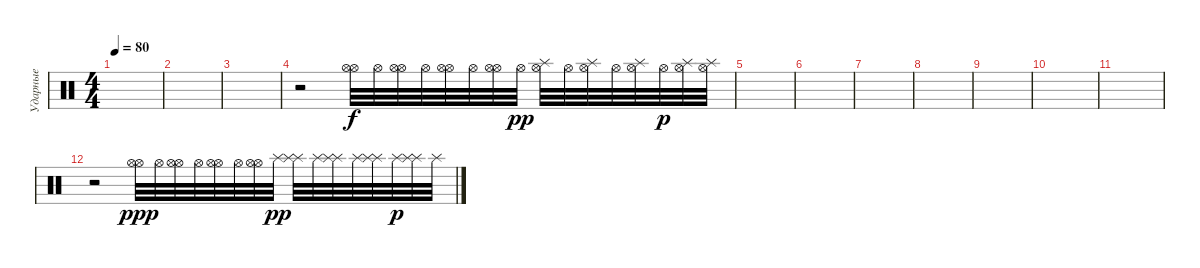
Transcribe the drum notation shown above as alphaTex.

\track ("Ударные" "Ударные") {instrument percussion}
\staff {score}
\articulation defaults
\ts (4 4)
\tempo 80
\clef neutral
\ks c
|
|
|
r.2 ("Hi-Hat (open)" "Hi-Hat (open)").32 "Hi-Hat (open)".32 ("Hi-Hat (open)" "Hi-Hat (open)").32 "Hi-Hat (open)".32 ("Hi-Hat (open)" "Hi-Hat (open)").32 "Hi-Hat (open)".32 ("Hi-Hat (open)" "Hi-Hat (open)").32 "Hi-Hat (open)".32{dy pp} ("Hi-Hat (open)" "Splash (hit)").32 "Hi-Hat (open)".32 ("Hi-Hat (open)" "Splash (hit)").32 "Hi-Hat (open)".32 ("Hi-Hat (open)" "Splash (hit)").32 "Hi-Hat (open)".32{dy p} ("Hi-Hat (open)" "Splash (hit)").32 ("Hi-Hat (open)" "Splash (hit)").32 |
|
|
|
|
|
|
|
r.2 ("Hi-Hat (open)" "Hi-Hat (open)").32{dy ppp} "Hi-Hat (open)".32 ("Hi-Hat (open)" "Hi-Hat (open)").32 "Hi-Hat (open)".32 ("Hi-Hat (open)" "Hi-Hat (open)").32 "Hi-Hat (open)".32 ("Hi-Hat (open)" "Hi-Hat (open)").32 "Splash (hit)".32{dy pp} ("Splash (hit)" "Splash (hit)").32 "Splash (hit)".32 ("Splash (hit)" "Splash (hit)").32 "Splash (hit)".32 ("Splash (hit)" "Splash (hit)").32 "Splash (hit)".32{dy p} ("Splash (hit)" "Splash (hit)").32 "Splash (hit)".32
